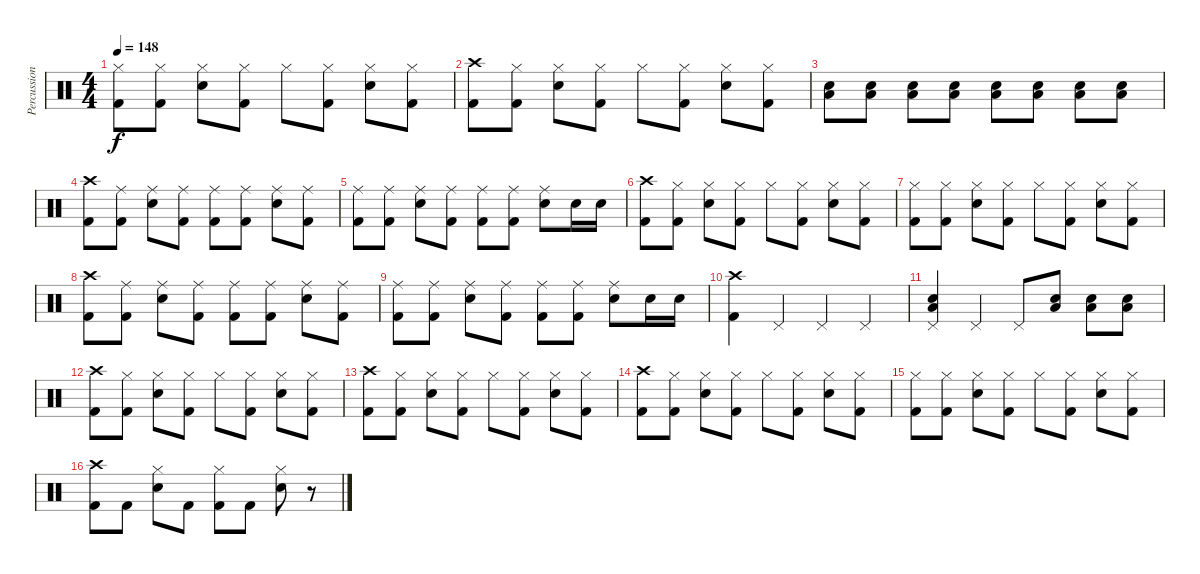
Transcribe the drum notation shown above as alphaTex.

\track ("Percussion" "Percussion") {instrument percussion}
\staff {score}
\articulation defaults
\ts (4 4)
\tempo 148
\clef neutral
\ks c
("Hi-Hat (closed)" "Kick (hit) 2").8{dy f} ("Hi-Hat (closed)" "Kick (hit) 2").8 ("Hi-Hat (closed)" "Electric Snare (hit)").8 ("Hi-Hat (closed)" "Kick (hit) 2").8 "Hi-Hat (closed)".8 ("Hi-Hat (closed)" "Kick (hit) 2").8 ("Hi-Hat (closed)" "Electric Snare (hit)").8 ("Hi-Hat (closed)" "Kick (hit) 2").8 |
("Crash high (hit)" "Kick (hit) 2").8 ("Hi-Hat (closed)" "Kick (hit) 2").8 ("Hi-Hat (closed)" "Electric Snare (hit)").8 ("Hi-Hat (closed)" "Kick (hit) 2").8 "Hi-Hat (closed)".8 ("Hi-Hat (closed)" "Kick (hit) 2").8 ("Hi-Hat (closed)" "Electric Snare (hit)").8 ("Hi-Hat (closed)" "Kick (hit) 2").8 |
("Electric Snare (hit)" "Low Tom (hit)").8 ("Electric Snare (hit)" "Low Tom (hit)").8 ("Electric Snare (hit)" "Low Tom (hit)").8 ("Electric Snare (hit)" "Low Tom (hit)").8 ("Electric Snare (hit)" "Low Tom (hit)").8 ("Electric Snare (hit)" "Low Tom (hit)").8 ("Electric Snare (hit)" "Low Tom (hit)").8 ("Electric Snare (hit)" "Low Tom (hit)").8 |
("Crash high (hit)" "Kick (hit) 2").8 ("Ride (middle)" "Kick (hit) 2").8 ("Ride (middle)" "Electric Snare (hit)").8 ("Ride (middle)" "Kick (hit) 2").8 ("Ride (middle)" "Kick (hit) 2").8 ("Ride (middle)" "Kick (hit) 2").8 ("Ride (middle)" "Electric Snare (hit)").8 ("Ride (middle)" "Kick (hit) 2").8 |
("Ride (middle)" "Kick (hit) 2").8 ("Ride (middle)" "Kick (hit) 2").8 ("Ride (middle)" "Electric Snare (hit)").8 ("Ride (middle)" "Kick (hit) 2").8 ("Ride (middle)" "Kick (hit) 2").8 ("Ride (middle)" "Kick (hit) 2").8 ("Ride (middle)" "Electric Snare (hit)").8 "Electric Snare (hit)".16 "Electric Snare (hit)".16 |
("Crash high (hit)" "Kick (hit) 2").8 ("Hi-Hat (closed)" "Kick (hit) 2").8 ("Hi-Hat (closed)" "Electric Snare (hit)").8 ("Hi-Hat (closed)" "Kick (hit) 2").8 "Hi-Hat (closed)".8 ("Hi-Hat (closed)" "Kick (hit) 2").8 ("Hi-Hat (closed)" "Electric Snare (hit)").8 ("Hi-Hat (closed)" "Kick (hit) 2").8 |
("Hi-Hat (closed)" "Kick (hit) 2").8 ("Hi-Hat (closed)" "Kick (hit) 2").8 ("Hi-Hat (closed)" "Electric Snare (hit)").8 ("Hi-Hat (closed)" "Kick (hit) 2").8 "Hi-Hat (closed)".8 ("Hi-Hat (closed)" "Kick (hit) 2").8 ("Hi-Hat (closed)" "Electric Snare (hit)").8 ("Hi-Hat (closed)" "Kick (hit) 2").8 |
("Crash high (hit)" "Kick (hit) 2").8 ("Ride (middle)" "Kick (hit) 2").8 ("Ride (middle)" "Electric Snare (hit)").8 ("Ride (middle)" "Kick (hit) 2").8 ("Ride (middle)" "Kick (hit) 2").8 ("Ride (middle)" "Kick (hit) 2").8 ("Ride (middle)" "Electric Snare (hit)").8 ("Ride (middle)" "Kick (hit) 2").8 |
("Ride (middle)" "Kick (hit) 2").8 ("Ride (middle)" "Kick (hit) 2").8 ("Ride (middle)" "Electric Snare (hit)").8 ("Ride (middle)" "Kick (hit) 2").8 ("Ride (middle)" "Kick (hit) 2").8 ("Ride (middle)" "Kick (hit) 2").8 ("Ride (middle)" "Electric Snare (hit)").8 "Electric Snare (hit)".16 "Electric Snare (hit)".16 |
("Crash high (hit)" "Kick (hit) 2").4 "Pedal Hi-Hat (hit)".4 "Pedal Hi-Hat (hit)".4 "Pedal Hi-Hat (hit)".4 |
("Pedal Hi-Hat (hit)" "Electric Snare (hit)" "Low Tom (hit)").4 "Pedal Hi-Hat (hit)".4 "Pedal Hi-Hat (hit)".8 ("Electric Snare (hit)" "Low Tom (hit)").8 ("Electric Snare (hit)" "Low Tom (hit)").8 ("Electric Snare (hit)" "Low Tom (hit)").8 |
("Crash high (hit)" "Kick (hit) 2").8 ("Hi-Hat (closed)" "Kick (hit) 2").8 ("Hi-Hat (closed)" "Electric Snare (hit)").8 ("Hi-Hat (closed)" "Kick (hit) 2").8 "Hi-Hat (closed)".8 ("Hi-Hat (closed)" "Kick (hit) 2").8 ("Hi-Hat (closed)" "Electric Snare (hit)").8 ("Hi-Hat (closed)" "Kick (hit) 2").8 |
("Crash high (hit)" "Kick (hit) 2").8 ("Hi-Hat (closed)" "Kick (hit) 2").8 ("Hi-Hat (closed)" "Electric Snare (hit)").8 ("Hi-Hat (closed)" "Kick (hit) 2").8 "Hi-Hat (closed)".8 ("Hi-Hat (closed)" "Kick (hit) 2").8 ("Hi-Hat (closed)" "Electric Snare (hit)").8 ("Hi-Hat (closed)" "Kick (hit) 2").8 |
("Crash high (hit)" "Kick (hit) 2").8 ("Hi-Hat (closed)" "Kick (hit) 2").8 ("Hi-Hat (closed)" "Electric Snare (hit)").8 ("Hi-Hat (closed)" "Kick (hit) 2").8 "Hi-Hat (closed)".8 ("Hi-Hat (closed)" "Kick (hit) 2").8 ("Hi-Hat (closed)" "Electric Snare (hit)").8 ("Hi-Hat (closed)" "Kick (hit) 2").8 |
("Hi-Hat (closed)" "Kick (hit) 2").8 ("Hi-Hat (closed)" "Kick (hit) 2").8 ("Hi-Hat (closed)" "Electric Snare (hit)").8 ("Hi-Hat (closed)" "Kick (hit) 2").8 "Hi-Hat (closed)".8 ("Hi-Hat (closed)" "Kick (hit) 2").8 ("Hi-Hat (closed)" "Electric Snare (hit)").8 ("Hi-Hat (closed)" "Kick (hit) 2").8 |
("Crash high (hit)" "Kick (hit) 2").8 "Kick (hit) 2".8 ("Hi-Hat (closed)" "Electric Snare (hit)").8 "Kick (hit) 2".8 ("Hi-Hat (closed)" "Kick (hit) 2").8 "Kick (hit) 2".8 ("Hi-Hat (closed)" "Electric Snare (hit)").8 r.8
